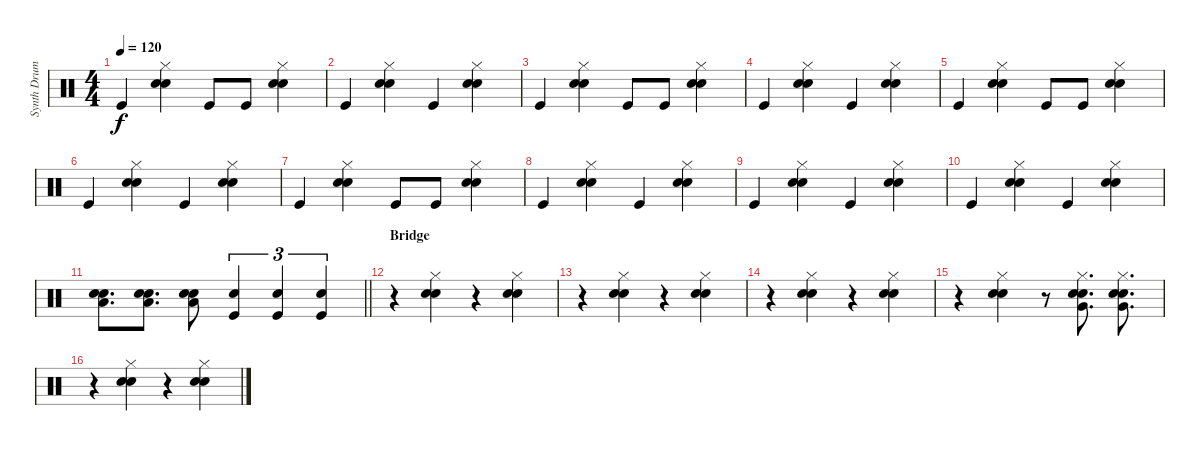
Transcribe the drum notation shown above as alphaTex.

\track ("Synth Drums" "Synth Drum") {instrument percussion}
\staff {score}
\articulation defaults
\ts (4 4)
\tempo 120
\clef neutral
\ks c "Kick (hit)".4{dy f}
("Hi-Hat (closed)" "Snare (hit) 2" "Hand Clap (hit)").4 "Kick (hit)".8 "Kick (hit)".8 ("Hi-Hat (closed)" "Snare (hit) 2" "Hand Clap (hit)").4 |
"Kick (hit)".4 ("Hi-Hat (closed)" "Snare (hit) 2" "Hand Clap (hit)").4 "Kick (hit)".4 ("Hi-Hat (closed)" "Snare (hit) 2" "Hand Clap (hit)").4 |
"Kick (hit)".4 ("Hi-Hat (closed)" "Snare (hit) 2" "Hand Clap (hit)").4 "Kick (hit)".8 "Kick (hit)".8 ("Hi-Hat (closed)" "Snare (hit) 2" "Hand Clap (hit)").4 |
"Kick (hit)".4 ("Hi-Hat (closed)" "Snare (hit) 2" "Hand Clap (hit)").4 "Kick (hit)".4 ("Hi-Hat (closed)" "Snare (hit) 2" "Hand Clap (hit)").4 |
"Kick (hit)".4 ("Hi-Hat (closed)" "Snare (hit) 2" "Hand Clap (hit)").4 "Kick (hit)".8 "Kick (hit)".8 ("Hi-Hat (closed)" "Snare (hit) 2" "Hand Clap (hit)").4 |
"Kick (hit)".4 ("Hi-Hat (closed)" "Snare (hit) 2" "Hand Clap (hit)").4 "Kick (hit)".4 ("Hi-Hat (closed)" "Snare (hit) 2" "Hand Clap (hit)").4 |
"Kick (hit)".4 ("Hi-Hat (closed)" "Snare (hit) 2" "Hand Clap (hit)").4 "Kick (hit)".8 "Kick (hit)".8 ("Hi-Hat (closed)" "Snare (hit) 2" "Hand Clap (hit)").4 |
"Kick (hit)".4 ("Hi-Hat (closed)" "Snare (hit) 2" "Hand Clap (hit)").4 "Kick (hit)".4 ("Hi-Hat (closed)" "Snare (hit) 2" "Hand Clap (hit)").4 |
"Kick (hit)".4 ("Hi-Hat (closed)" "Snare (hit) 2" "Hand Clap (hit)").4 "Kick (hit)".4 ("Hi-Hat (closed)" "Snare (hit) 2" "Hand Clap (hit)").4 |
"Kick (hit)".4 ("Hi-Hat (closed)" "Snare (hit) 2" "Hand Clap (hit)").4 "Kick (hit)".4 ("Hi-Hat (closed)" "Snare (hit) 2" "Hand Clap (hit)").4 |
\barLineRight lightlight
("Electric Snare (hit)" "Snare (hit) 2" "Low Floor Tom (hit)").8{d} ("Electric Snare (hit)" "Snare (hit) 2" "Low Floor Tom (hit)").8{d} ("Electric Snare (hit)" "Snare (hit) 2" "Low Floor Tom (hit)").8 ("Electric Snare (hit)" "Kick (hit)").4{tu (3 2)} ("Electric Snare (hit)" "Kick (hit)").4{tu (3 2)} ("Electric Snare (hit)" "Kick (hit)").4{tu (3 2)} |
\section ("" "Bridge")
r.4 ("Hi-Hat (closed)" "Snare (hit) 2" "Hand Clap (hit)").4 r.4 ("Hi-Hat (closed)" "Snare (hit) 2" "Hand Clap (hit)").4 |
r.4 ("Hi-Hat (closed)" "Snare (hit) 2" "Hand Clap (hit)").4 r.4 ("Hi-Hat (closed)" "Snare (hit) 2" "Hand Clap (hit)").4 |
r.4 ("Hi-Hat (closed)" "Snare (hit) 2" "Hand Clap (hit)").4 r.4 ("Hi-Hat (closed)" "Snare (hit) 2" "Hand Clap (hit)").4 |
r.4 ("Hi-Hat (closed)" "Snare (hit) 2" "Hand Clap (hit)").4 r.8 ("Hi-Hat (closed)" "Snare (hit) 2" "Very Low Tom (hit)" "Hand Clap (hit)").8{d} ("Hi-Hat (closed)" "Snare (hit) 2" "Very Low Tom (hit)" "Hand Clap (hit)").8{d} |
r.4 ("Hi-Hat (closed)" "Snare (hit) 2" "Hand Clap (hit)").4 r.4 ("Hi-Hat (closed)" "Snare (hit) 2" "Hand Clap (hit)").4
